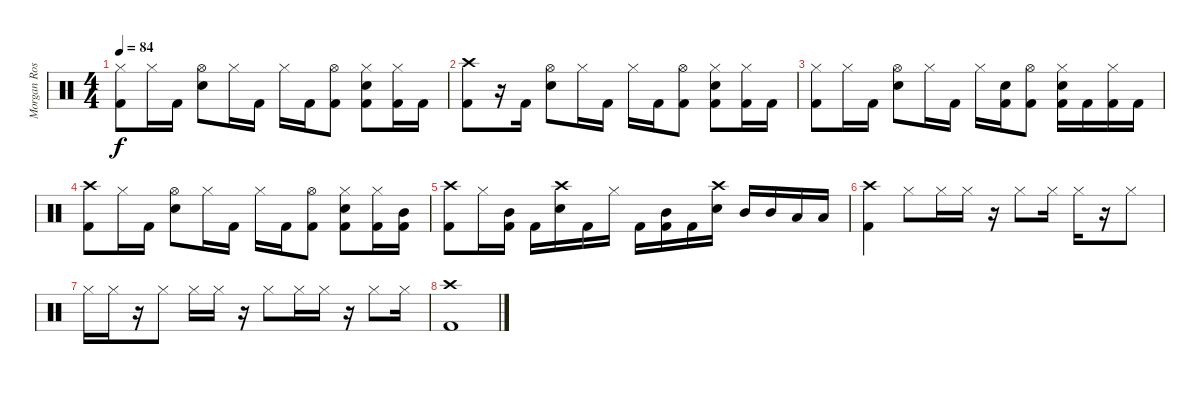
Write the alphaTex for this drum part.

\track ("Morgan Rose - Drums" "Morgan Ros") {instrument percussion}
\staff {score}
\articulation defaults
\ts (4 4)
\tempo 84
\clef neutral
\ks c
("Hi-Hat (closed)" "Kick (hit) 2").8{dy f} "Hi-Hat (closed)".16 "Kick (hit) 2".16 ("Hi-Hat (open)" "Electric Snare (hit)").8 "Hi-Hat (closed)".16 "Kick (hit) 2".16 "Hi-Hat (closed)".16 "Kick (hit) 2".16 ("Hi-Hat (open)" "Kick (hit) 2").8 ("Hi-Hat (closed)" "Electric Snare (hit)" "Kick (hit) 2").8 ("Hi-Hat (closed)" "Kick (hit) 2").16 "Kick (hit) 2".16 |
("Crash high (hit)" "Kick (hit) 2").8 r.16 "Kick (hit) 2".16 ("Hi-Hat (open)" "Electric Snare (hit)").8 "Hi-Hat (closed)".16 "Kick (hit) 2".16 "Hi-Hat (closed)".16 "Kick (hit) 2".16 ("Hi-Hat (open)" "Kick (hit) 2").8 ("Hi-Hat (closed)" "Electric Snare (hit)" "Kick (hit) 2").8 ("Hi-Hat (closed)" "Kick (hit) 2").16 "Kick (hit) 2".16 |
("Hi-Hat (closed)" "Kick (hit) 2").8 "Hi-Hat (closed)".16 "Kick (hit) 2".16 ("Hi-Hat (open)" "Electric Snare (hit)").8 "Hi-Hat (closed)".16 "Kick (hit) 2".16 "Hi-Hat (closed)".16 ("Electric Snare (hit)" "Kick (hit) 2").16 ("Hi-Hat (open)" "Kick (hit) 2").8 ("Hi-Hat (closed)" "Electric Snare (hit)" "Kick (hit) 2").16 "Kick (hit) 2".16 ("Hi-Hat (closed)" "Kick (hit) 2").16 "Kick (hit) 2".16 |
("Crash high (hit)" "Kick (hit) 2").8 "Hi-Hat (closed)".16 "Kick (hit) 2".16 ("Hi-Hat (open)" "Electric Snare (hit)").8 "Hi-Hat (closed)".16 "Kick (hit) 2".16 "Hi-Hat (closed)".16 "Kick (hit) 2".16 ("Hi-Hat (open)" "Kick (hit) 2").8 ("Hi-Hat (closed)" "Electric Snare (hit)" "Kick (hit) 2").8 ("Hi-Hat (closed)" "Kick (hit) 2").16 ("Mid Tom (hit)" "Kick (hit) 2").16 |
("Crash high (hit)" "Kick (hit) 2").8 "Hi-Hat (closed)".16 ("Mid Tom (hit)" "Kick (hit) 2").16 "Kick (hit) 2".16 ("Crash high (hit)" "Electric Snare (hit)").16 "Kick (hit) 2".16 "Hi-Hat (closed)".16 "Kick (hit) 2".16 ("Mid Tom (hit)" "Kick (hit) 2").16 "Kick (hit) 2".16 ("Crash high (hit)" "Electric Snare (hit)").16 "Mid Tom (hit)".16 "Mid Tom (hit)".16 "Low Tom (hit)".16 "Low Tom (hit)".16 |
("Crash high (hit)" "Kick (hit) 2").4 "Hi-Hat (closed)".8 "Hi-Hat (closed)".16 "Hi-Hat (closed)".16 r.16 "Hi-Hat (closed)".8 "Hi-Hat (closed)".16 "Hi-Hat (closed)".16 r.16 "Hi-Hat (closed)".8 |
"Hi-Hat (closed)".16 "Hi-Hat (closed)".16 r.16 "Hi-Hat (closed)".8 "Hi-Hat (closed)".16 "Hi-Hat (closed)".16 r.16 "Hi-Hat (closed)".8 "Hi-Hat (closed)".16 "Hi-Hat (closed)".16 r.16 "Hi-Hat (closed)".8 "Hi-Hat (closed)".16 |
("Crash high (hit)" "Kick (hit) 2").1
